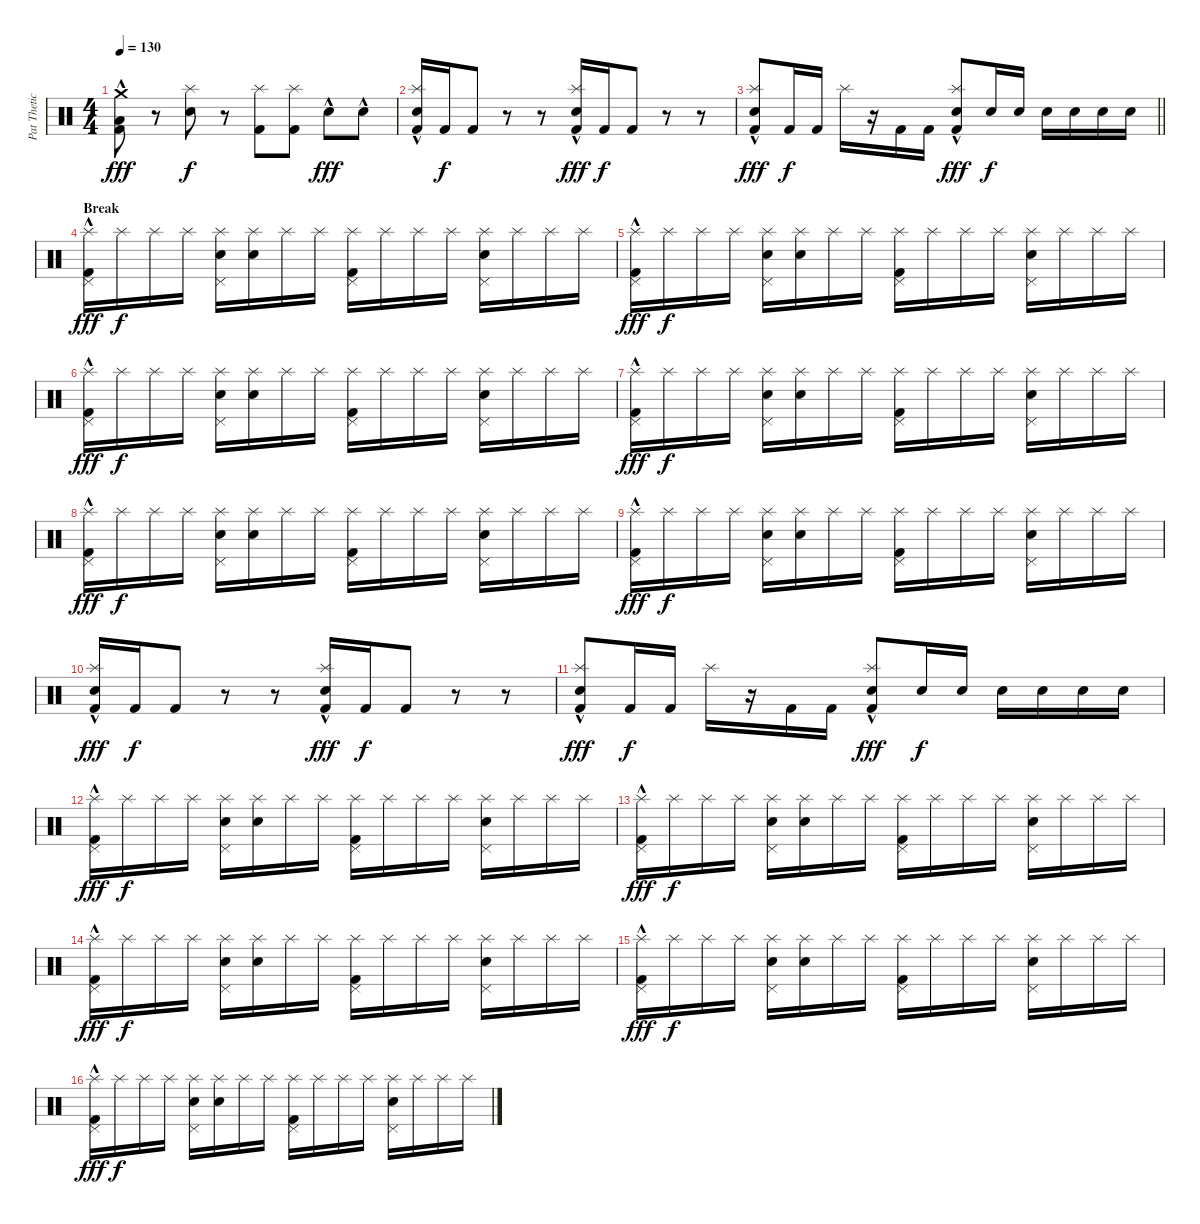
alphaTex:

\track ("Pat Thetic Drums" "Pat Thetic") {instrument percussion}
\staff {score}
\articulation defaults
\ts (4 4)
\tempo 130
\clef neutral
\ks c
("Kick (hit) 2"{hac} "Low Floor Tom (hit)" "Crash medium (hit)").8{dy fff} r.8 ("Splash (hit)" "Snare (hit) 2").8{dy f} r.8 ("Splash (hit)" "Kick (hit) 2").8 ("Splash (hit)" "Kick (hit) 2").8 "Snare (hit) 2"{hac}.8{dy fff} "Snare (hit) 2"{hac}.8 |
("Splash (hit)" "Kick (hit) 2"{hac} "Snare (hit) 2").16 "Kick (hit) 2".16{dy f} "Kick (hit) 2".8 r.8 r.8 ("Splash (hit)" "Kick (hit) 2"{hac} "Snare (hit) 2").16{dy fff} "Kick (hit) 2".16{dy f} "Kick (hit) 2".8 r.8 r.8 |
\barLineRight lightlight
("Splash (hit)" "Kick (hit) 2"{hac} "Snare (hit) 2").8{dy fff} "Kick (hit) 2".16{dy f} "Kick (hit) 2".16 "Splash (hit)".16 r.16 "Kick (hit) 2".16 "Kick (hit) 2".16 ("Splash (hit)" "Kick (hit) 2"{hac} "Snare (hit) 2").8{dy fff} "Snare (hit) 2".16{dy f} "Snare (hit) 2".16 "Snare (hit) 2".16 "Snare (hit) 2".16 "Snare (hit) 2".16 "Snare (hit) 2".16 |
\section ("" "Break")
("Splash (hit)" "Pedal Hi-Hat (hit)" "Kick (hit) 2"{hac}).16{dy fff} "Splash (hit)".16{dy f} "Splash (hit)".16 "Splash (hit)".16 ("Splash (hit)" "Pedal Hi-Hat (hit)" "Snare (hit) 2").16 ("Splash (hit)" "Snare (hit) 2").16 "Splash (hit)".16 "Splash (hit)".16 ("Splash (hit)" "Pedal Hi-Hat (hit)" "Kick (hit) 2").16 "Splash (hit)".16 "Splash (hit)".16 "Splash (hit)".16 ("Splash (hit)" "Pedal Hi-Hat (hit)" "Snare (hit) 2").16 "Splash (hit)".16 "Splash (hit)".16 "Splash (hit)".16 |
("Splash (hit)" "Pedal Hi-Hat (hit)" "Kick (hit) 2"{hac}).16{dy fff} "Splash (hit)".16{dy f} "Splash (hit)".16 "Splash (hit)".16 ("Splash (hit)" "Pedal Hi-Hat (hit)" "Snare (hit) 2").16 ("Splash (hit)" "Snare (hit) 2").16 "Splash (hit)".16 "Splash (hit)".16 ("Splash (hit)" "Pedal Hi-Hat (hit)" "Kick (hit) 2").16 "Splash (hit)".16 "Splash (hit)".16 "Splash (hit)".16 ("Splash (hit)" "Pedal Hi-Hat (hit)" "Snare (hit) 2").16 "Splash (hit)".16 "Splash (hit)".16 "Splash (hit)".16 |
("Splash (hit)" "Pedal Hi-Hat (hit)" "Kick (hit) 2"{hac}).16{dy fff} "Splash (hit)".16{dy f} "Splash (hit)".16 "Splash (hit)".16 ("Splash (hit)" "Pedal Hi-Hat (hit)" "Snare (hit) 2").16 ("Splash (hit)" "Snare (hit) 2").16 "Splash (hit)".16 "Splash (hit)".16 ("Splash (hit)" "Pedal Hi-Hat (hit)" "Kick (hit) 2").16 "Splash (hit)".16 "Splash (hit)".16 "Splash (hit)".16 ("Splash (hit)" "Pedal Hi-Hat (hit)" "Snare (hit) 2").16 "Splash (hit)".16 "Splash (hit)".16 "Splash (hit)".16 |
("Splash (hit)" "Pedal Hi-Hat (hit)" "Kick (hit) 2"{hac}).16{dy fff} "Splash (hit)".16{dy f} "Splash (hit)".16 "Splash (hit)".16 ("Splash (hit)" "Pedal Hi-Hat (hit)" "Snare (hit) 2").16 ("Splash (hit)" "Snare (hit) 2").16 "Splash (hit)".16 "Splash (hit)".16 ("Splash (hit)" "Pedal Hi-Hat (hit)" "Kick (hit) 2").16 "Splash (hit)".16 "Splash (hit)".16 "Splash (hit)".16 ("Splash (hit)" "Pedal Hi-Hat (hit)" "Snare (hit) 2").16 "Splash (hit)".16 "Splash (hit)".16 "Splash (hit)".16 |
("Splash (hit)" "Pedal Hi-Hat (hit)" "Kick (hit) 2"{hac}).16{dy fff} "Splash (hit)".16{dy f} "Splash (hit)".16 "Splash (hit)".16 ("Splash (hit)" "Pedal Hi-Hat (hit)" "Snare (hit) 2").16 ("Splash (hit)" "Snare (hit) 2").16 "Splash (hit)".16 "Splash (hit)".16 ("Splash (hit)" "Pedal Hi-Hat (hit)" "Kick (hit) 2").16 "Splash (hit)".16 "Splash (hit)".16 "Splash (hit)".16 ("Splash (hit)" "Pedal Hi-Hat (hit)" "Snare (hit) 2").16 "Splash (hit)".16 "Splash (hit)".16 "Splash (hit)".16 |
("Splash (hit)" "Pedal Hi-Hat (hit)" "Kick (hit) 2"{hac}).16{dy fff} "Splash (hit)".16{dy f} "Splash (hit)".16 "Splash (hit)".16 ("Splash (hit)" "Pedal Hi-Hat (hit)" "Snare (hit) 2").16 ("Splash (hit)" "Snare (hit) 2").16 "Splash (hit)".16 "Splash (hit)".16 ("Splash (hit)" "Pedal Hi-Hat (hit)" "Kick (hit) 2").16 "Splash (hit)".16 "Splash (hit)".16 "Splash (hit)".16 ("Splash (hit)" "Pedal Hi-Hat (hit)" "Snare (hit) 2").16 "Splash (hit)".16 "Splash (hit)".16 "Splash (hit)".16 |
("Splash (hit)" "Kick (hit) 2"{hac} "Snare (hit) 2").16{dy fff} "Kick (hit) 2".16{dy f} "Kick (hit) 2".8 r.8 r.8 ("Splash (hit)" "Kick (hit) 2"{hac} "Snare (hit) 2").16{dy fff} "Kick (hit) 2".16{dy f} "Kick (hit) 2".8 r.8 r.8 |
("Splash (hit)" "Kick (hit) 2"{hac} "Snare (hit) 2").8{dy fff} "Kick (hit) 2".16{dy f} "Kick (hit) 2".16 "Splash (hit)".16 r.16 "Kick (hit) 2".16 "Kick (hit) 2".16 ("Splash (hit)" "Kick (hit) 2"{hac} "Snare (hit) 2").8{dy fff} "Snare (hit) 2".16{dy f} "Snare (hit) 2".16 "Snare (hit) 2".16 "Snare (hit) 2".16 "Snare (hit) 2".16 "Snare (hit) 2".16 |
("Splash (hit)" "Pedal Hi-Hat (hit)" "Kick (hit) 2"{hac}).16{dy fff} "Splash (hit)".16{dy f} "Splash (hit)".16 "Splash (hit)".16 ("Splash (hit)" "Pedal Hi-Hat (hit)" "Snare (hit) 2").16 ("Splash (hit)" "Snare (hit) 2").16 "Splash (hit)".16 "Splash (hit)".16 ("Splash (hit)" "Pedal Hi-Hat (hit)" "Kick (hit) 2").16 "Splash (hit)".16 "Splash (hit)".16 "Splash (hit)".16 ("Splash (hit)" "Pedal Hi-Hat (hit)" "Snare (hit) 2").16 "Splash (hit)".16 "Splash (hit)".16 "Splash (hit)".16 |
("Splash (hit)" "Pedal Hi-Hat (hit)" "Kick (hit) 2"{hac}).16{dy fff} "Splash (hit)".16{dy f} "Splash (hit)".16 "Splash (hit)".16 ("Splash (hit)" "Pedal Hi-Hat (hit)" "Snare (hit) 2").16 ("Splash (hit)" "Snare (hit) 2").16 "Splash (hit)".16 "Splash (hit)".16 ("Splash (hit)" "Pedal Hi-Hat (hit)" "Kick (hit) 2").16 "Splash (hit)".16 "Splash (hit)".16 "Splash (hit)".16 ("Splash (hit)" "Pedal Hi-Hat (hit)" "Snare (hit) 2").16 "Splash (hit)".16 "Splash (hit)".16 "Splash (hit)".16 |
("Splash (hit)" "Pedal Hi-Hat (hit)" "Kick (hit) 2"{hac}).16{dy fff} "Splash (hit)".16{dy f} "Splash (hit)".16 "Splash (hit)".16 ("Splash (hit)" "Pedal Hi-Hat (hit)" "Snare (hit) 2").16 ("Splash (hit)" "Snare (hit) 2").16 "Splash (hit)".16 "Splash (hit)".16 ("Splash (hit)" "Pedal Hi-Hat (hit)" "Kick (hit) 2").16 "Splash (hit)".16 "Splash (hit)".16 "Splash (hit)".16 ("Splash (hit)" "Pedal Hi-Hat (hit)" "Snare (hit) 2").16 "Splash (hit)".16 "Splash (hit)".16 "Splash (hit)".16 |
("Splash (hit)" "Pedal Hi-Hat (hit)" "Kick (hit) 2"{hac}).16{dy fff} "Splash (hit)".16{dy f} "Splash (hit)".16 "Splash (hit)".16 ("Splash (hit)" "Pedal Hi-Hat (hit)" "Snare (hit) 2").16 ("Splash (hit)" "Snare (hit) 2").16 "Splash (hit)".16 "Splash (hit)".16 ("Splash (hit)" "Pedal Hi-Hat (hit)" "Kick (hit) 2").16 "Splash (hit)".16 "Splash (hit)".16 "Splash (hit)".16 ("Splash (hit)" "Pedal Hi-Hat (hit)" "Snare (hit) 2").16 "Splash (hit)".16 "Splash (hit)".16 "Splash (hit)".16 |
("Splash (hit)" "Pedal Hi-Hat (hit)" "Kick (hit) 2"{hac}).16{dy fff} "Splash (hit)".16{dy f} "Splash (hit)".16 "Splash (hit)".16 ("Splash (hit)" "Pedal Hi-Hat (hit)" "Snare (hit) 2").16 ("Splash (hit)" "Snare (hit) 2").16 "Splash (hit)".16 "Splash (hit)".16 ("Splash (hit)" "Pedal Hi-Hat (hit)" "Kick (hit) 2").16 "Splash (hit)".16 "Splash (hit)".16 "Splash (hit)".16 ("Splash (hit)" "Pedal Hi-Hat (hit)" "Snare (hit) 2").16 "Splash (hit)".16 "Splash (hit)".16 "Splash (hit)".16
